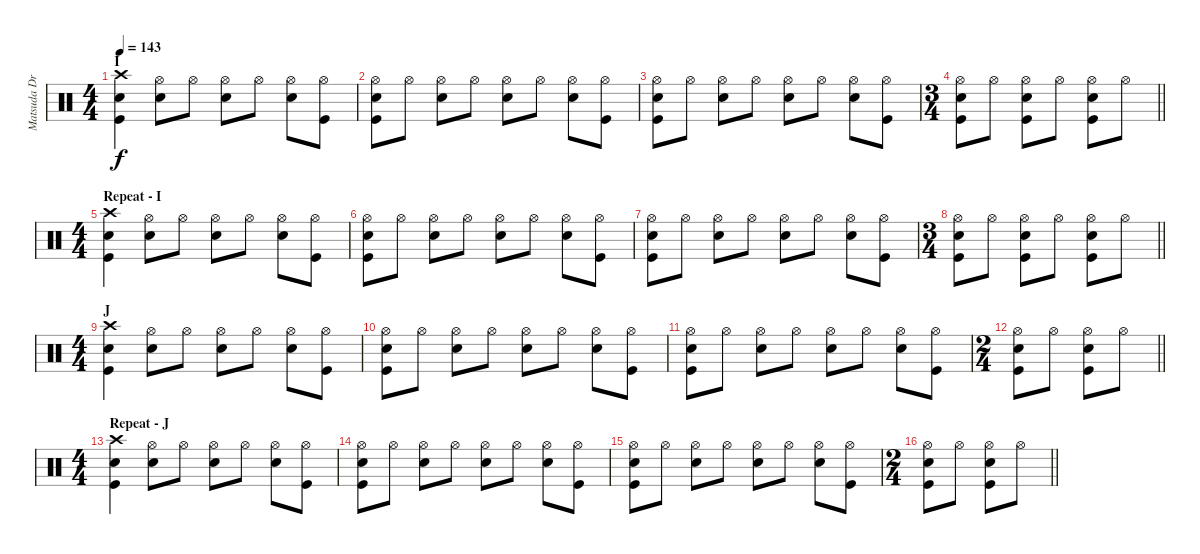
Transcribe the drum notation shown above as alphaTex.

\track ("Matsuda Drums" "Matsuda Dr") {instrument percussion}
\staff {score}
\articulation defaults
\ts (4 4)
\section ("" "I")
\tempo 143
\clef neutral
\ks c
("Crash high (hit)" "Snare (hit) 2" "Kick (hit)").4{dy f} ("Hi-Hat (open)" "Snare (hit) 2").8 "Hi-Hat (open)".8 ("Hi-Hat (open)" "Snare (hit) 2").8 "Hi-Hat (open)".8 ("Hi-Hat (open)" "Snare (hit) 2").8 ("Hi-Hat (open)" "Kick (hit)").8 |
("Hi-Hat (open)" "Snare (hit) 2" "Kick (hit)").8 "Hi-Hat (open)".8 ("Hi-Hat (open)" "Snare (hit) 2").8 "Hi-Hat (open)".8 ("Hi-Hat (open)" "Snare (hit) 2").8 "Hi-Hat (open)".8 ("Hi-Hat (open)" "Snare (hit) 2").8 ("Hi-Hat (open)" "Kick (hit)").8 |
("Hi-Hat (open)" "Snare (hit) 2" "Kick (hit)").8 "Hi-Hat (open)".8 ("Hi-Hat (open)" "Snare (hit) 2").8 "Hi-Hat (open)".8 ("Hi-Hat (open)" "Snare (hit) 2").8 "Hi-Hat (open)".8 ("Hi-Hat (open)" "Snare (hit) 2").8 ("Hi-Hat (open)" "Kick (hit)").8 |
\ts (3 4)
\barLineRight lightlight
("Hi-Hat (open)" "Snare (hit) 2" "Kick (hit)").8 "Hi-Hat (open)".8 ("Hi-Hat (open)" "Snare (hit) 2" "Kick (hit)").8 "Hi-Hat (open)".8 ("Hi-Hat (open)" "Snare (hit) 2" "Kick (hit)").8 "Hi-Hat (open)".8 |
\ts (4 4)
\section ("" "Repeat - I")
("Crash high (hit)" "Snare (hit) 2" "Kick (hit)").4 ("Hi-Hat (open)" "Snare (hit) 2").8 "Hi-Hat (open)".8 ("Hi-Hat (open)" "Snare (hit) 2").8 "Hi-Hat (open)".8 ("Hi-Hat (open)" "Snare (hit) 2").8 ("Hi-Hat (open)" "Kick (hit)").8 |
("Hi-Hat (open)" "Snare (hit) 2" "Kick (hit)").8 "Hi-Hat (open)".8 ("Hi-Hat (open)" "Snare (hit) 2").8 "Hi-Hat (open)".8 ("Hi-Hat (open)" "Snare (hit) 2").8 "Hi-Hat (open)".8 ("Hi-Hat (open)" "Snare (hit) 2").8 ("Hi-Hat (open)" "Kick (hit)").8 |
("Hi-Hat (open)" "Snare (hit) 2" "Kick (hit)").8 "Hi-Hat (open)".8 ("Hi-Hat (open)" "Snare (hit) 2").8 "Hi-Hat (open)".8 ("Hi-Hat (open)" "Snare (hit) 2").8 "Hi-Hat (open)".8 ("Hi-Hat (open)" "Snare (hit) 2").8 ("Hi-Hat (open)" "Kick (hit)").8 |
\ts (3 4)
\barLineRight lightlight
("Hi-Hat (open)" "Snare (hit) 2" "Kick (hit)").8 "Hi-Hat (open)".8 ("Hi-Hat (open)" "Snare (hit) 2" "Kick (hit)").8 "Hi-Hat (open)".8 ("Hi-Hat (open)" "Snare (hit) 2" "Kick (hit)").8 "Hi-Hat (open)".8 |
\ts (4 4)
\section ("" "J")
("Crash high (hit)" "Snare (hit) 2" "Kick (hit)").4 ("Hi-Hat (open)" "Snare (hit) 2").8 "Hi-Hat (open)".8 ("Hi-Hat (open)" "Snare (hit) 2").8 "Hi-Hat (open)".8 ("Hi-Hat (open)" "Snare (hit) 2").8 ("Hi-Hat (open)" "Kick (hit)").8 |
("Hi-Hat (open)" "Snare (hit) 2" "Kick (hit)").8 "Hi-Hat (open)".8 ("Hi-Hat (open)" "Snare (hit) 2").8 "Hi-Hat (open)".8 ("Hi-Hat (open)" "Snare (hit) 2").8 "Hi-Hat (open)".8 ("Hi-Hat (open)" "Snare (hit) 2").8 ("Hi-Hat (open)" "Kick (hit)").8 |
("Hi-Hat (open)" "Snare (hit) 2" "Kick (hit)").8 "Hi-Hat (open)".8 ("Hi-Hat (open)" "Snare (hit) 2").8 "Hi-Hat (open)".8 ("Hi-Hat (open)" "Snare (hit) 2").8 "Hi-Hat (open)".8 ("Hi-Hat (open)" "Snare (hit) 2").8 ("Hi-Hat (open)" "Kick (hit)").8 |
\ts (2 4)
\barLineRight lightlight
("Hi-Hat (open)" "Snare (hit) 2" "Kick (hit)").8 "Hi-Hat (open)".8 ("Hi-Hat (open)" "Snare (hit) 2" "Kick (hit)").8 "Hi-Hat (open)".8 |
\ts (4 4)
\section ("" "Repeat - J")
("Crash high (hit)" "Snare (hit) 2" "Kick (hit)").4 ("Hi-Hat (open)" "Snare (hit) 2").8 "Hi-Hat (open)".8 ("Hi-Hat (open)" "Snare (hit) 2").8 "Hi-Hat (open)".8 ("Hi-Hat (open)" "Snare (hit) 2").8 ("Hi-Hat (open)" "Kick (hit)").8 |
("Hi-Hat (open)" "Snare (hit) 2" "Kick (hit)").8 "Hi-Hat (open)".8 ("Hi-Hat (open)" "Snare (hit) 2").8 "Hi-Hat (open)".8 ("Hi-Hat (open)" "Snare (hit) 2").8 "Hi-Hat (open)".8 ("Hi-Hat (open)" "Snare (hit) 2").8 ("Hi-Hat (open)" "Kick (hit)").8 |
("Hi-Hat (open)" "Snare (hit) 2" "Kick (hit)").8 "Hi-Hat (open)".8 ("Hi-Hat (open)" "Snare (hit) 2").8 "Hi-Hat (open)".8 ("Hi-Hat (open)" "Snare (hit) 2").8 "Hi-Hat (open)".8 ("Hi-Hat (open)" "Snare (hit) 2").8 ("Hi-Hat (open)" "Kick (hit)").8 |
\ts (2 4)
\barLineRight lightlight
("Hi-Hat (open)" "Snare (hit) 2" "Kick (hit)").8 "Hi-Hat (open)".8 ("Hi-Hat (open)" "Snare (hit) 2" "Kick (hit)").8 "Hi-Hat (open)".8
